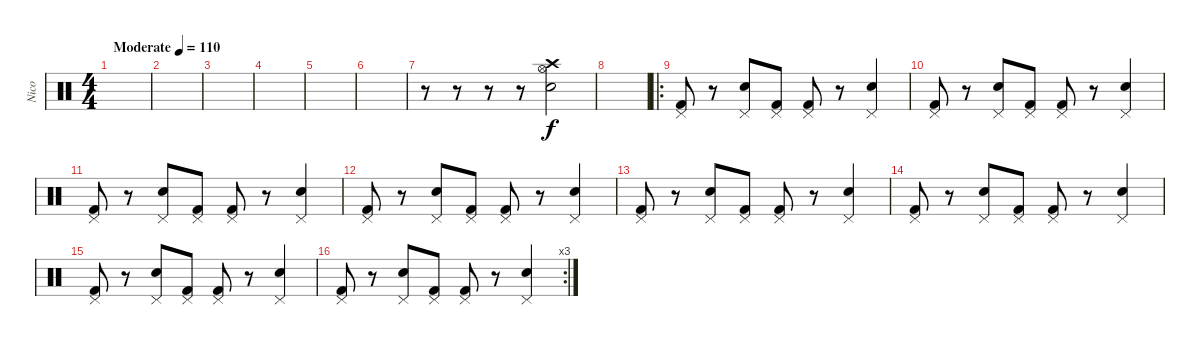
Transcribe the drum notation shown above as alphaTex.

\track ("Nico" "Nico") {instrument percussion}
\staff {score}
\articulation defaults
\ts (4 4)
\tempo (110 "Moderate")
\clef neutral
\ks c
|
|
|
|
|
|
r.8 r.8 r.8 r.8 ("Hi-Hat (open)" "Crash high (hit)" "Snare (hit) 2").2 |
|
\ro
("Pedal Hi-Hat (hit)" "Kick (hit) 2").8 r.8 ("Pedal Hi-Hat (hit)" "Snare (hit) 2").8 ("Pedal Hi-Hat (hit)" "Kick (hit) 2").8 ("Pedal Hi-Hat (hit)" "Kick (hit) 2").8 r.8 ("Pedal Hi-Hat (hit)" "Snare (hit) 2").4 |
("Pedal Hi-Hat (hit)" "Kick (hit) 2").8 r.8 ("Pedal Hi-Hat (hit)" "Snare (hit) 2").8 ("Pedal Hi-Hat (hit)" "Kick (hit) 2").8 ("Pedal Hi-Hat (hit)" "Kick (hit) 2").8 r.8 ("Pedal Hi-Hat (hit)" "Snare (hit) 2").4 |
("Pedal Hi-Hat (hit)" "Kick (hit) 2").8 r.8 ("Pedal Hi-Hat (hit)" "Snare (hit) 2").8 ("Pedal Hi-Hat (hit)" "Kick (hit) 2").8 ("Pedal Hi-Hat (hit)" "Kick (hit) 2").8 r.8 ("Pedal Hi-Hat (hit)" "Snare (hit) 2").4 |
("Pedal Hi-Hat (hit)" "Kick (hit) 2").8 r.8 ("Pedal Hi-Hat (hit)" "Snare (hit) 2").8 ("Pedal Hi-Hat (hit)" "Kick (hit) 2").8 ("Pedal Hi-Hat (hit)" "Kick (hit) 2").8 r.8 ("Pedal Hi-Hat (hit)" "Snare (hit) 2").4 |
("Pedal Hi-Hat (hit)" "Kick (hit) 2").8 r.8 ("Pedal Hi-Hat (hit)" "Snare (hit) 2").8 ("Pedal Hi-Hat (hit)" "Kick (hit) 2").8 ("Pedal Hi-Hat (hit)" "Kick (hit) 2").8 r.8 ("Pedal Hi-Hat (hit)" "Snare (hit) 2").4 |
("Pedal Hi-Hat (hit)" "Kick (hit) 2").8 r.8 ("Pedal Hi-Hat (hit)" "Snare (hit) 2").8 ("Pedal Hi-Hat (hit)" "Kick (hit) 2").8 ("Pedal Hi-Hat (hit)" "Kick (hit) 2").8 r.8 ("Pedal Hi-Hat (hit)" "Snare (hit) 2").4 |
("Pedal Hi-Hat (hit)" "Kick (hit) 2").8 r.8 ("Pedal Hi-Hat (hit)" "Snare (hit) 2").8 ("Pedal Hi-Hat (hit)" "Kick (hit) 2").8 ("Pedal Hi-Hat (hit)" "Kick (hit) 2").8 r.8 ("Pedal Hi-Hat (hit)" "Snare (hit) 2").4 |
\rc 3
("Pedal Hi-Hat (hit)" "Kick (hit) 2").8 r.8 ("Pedal Hi-Hat (hit)" "Snare (hit) 2").8 ("Pedal Hi-Hat (hit)" "Kick (hit) 2").8 ("Pedal Hi-Hat (hit)" "Kick (hit) 2").8 r.8 ("Pedal Hi-Hat (hit)" "Snare (hit) 2").4
